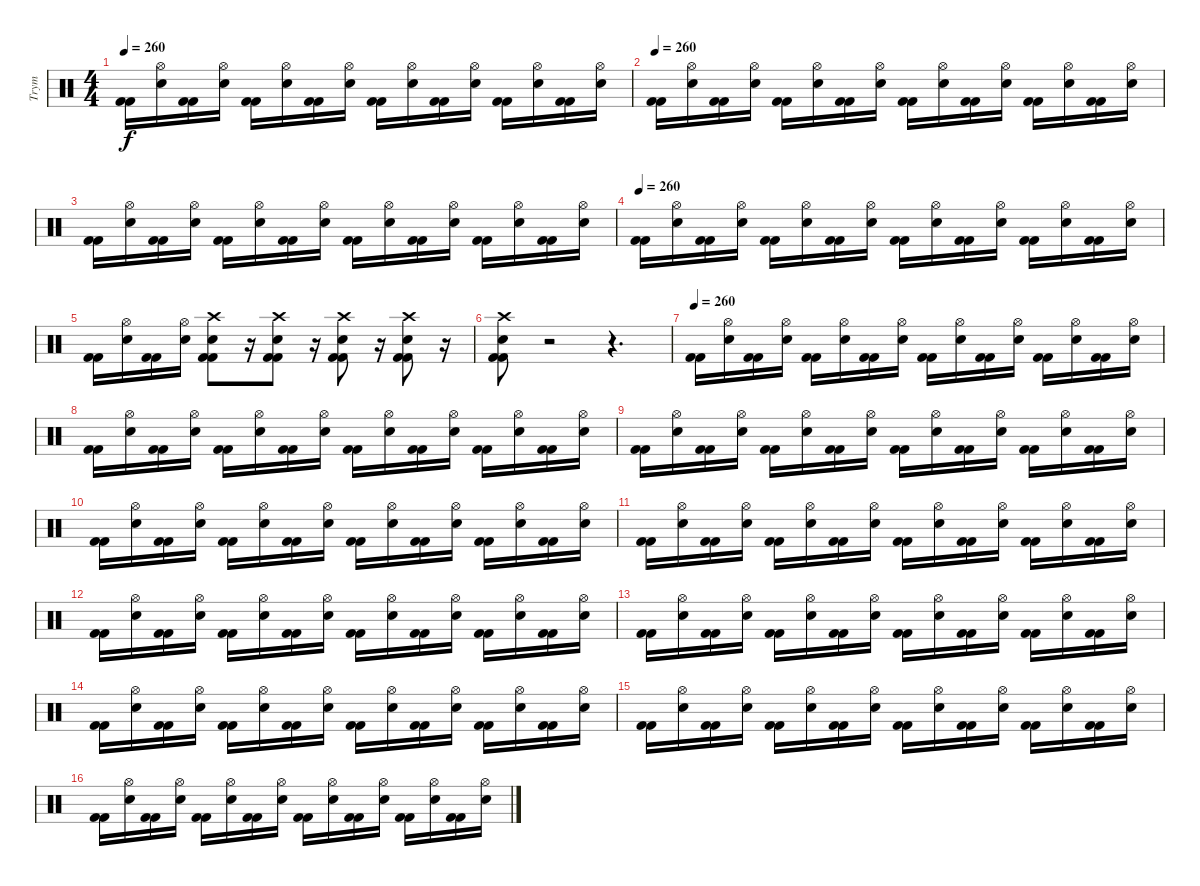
\track ("Trym" "Trym") {instrument percussion}
\staff {score}
\articulation defaults
\ts (4 4)
\tempo 260
\clef neutral
\ks c
("Kick (hit) 2" "Kick (hit) 2").16{dy f} ("Hi-Hat (open)" "Snare (hit) 2").16 ("Kick (hit) 2" "Kick (hit) 2").16 ("Hi-Hat (open)" "Snare (hit) 2").16 ("Kick (hit) 2" "Kick (hit) 2").16 ("Hi-Hat (open)" "Snare (hit) 2").16 ("Kick (hit) 2" "Kick (hit) 2").16 ("Hi-Hat (open)" "Snare (hit) 2").16 ("Kick (hit) 2" "Kick (hit) 2").16 ("Hi-Hat (open)" "Snare (hit) 2").16 ("Kick (hit) 2" "Kick (hit) 2").16 ("Hi-Hat (open)" "Snare (hit) 2").16 ("Kick (hit) 2" "Kick (hit) 2").16 ("Hi-Hat (open)" "Snare (hit) 2").16 ("Kick (hit) 2" "Kick (hit) 2").16 ("Hi-Hat (open)" "Snare (hit) 2").16 |
\tempo 260
("Kick (hit) 2" "Kick (hit) 2").16 ("Hi-Hat (open)" "Snare (hit) 2").16 ("Kick (hit) 2" "Kick (hit) 2").16 ("Hi-Hat (open)" "Snare (hit) 2").16 ("Kick (hit) 2" "Kick (hit) 2").16 ("Hi-Hat (open)" "Snare (hit) 2").16 ("Kick (hit) 2" "Kick (hit) 2").16 ("Hi-Hat (open)" "Snare (hit) 2").16 ("Kick (hit) 2" "Kick (hit) 2").16 ("Hi-Hat (open)" "Snare (hit) 2").16 ("Kick (hit) 2" "Kick (hit) 2").16 ("Hi-Hat (open)" "Snare (hit) 2").16 ("Kick (hit) 2" "Kick (hit) 2").16 ("Hi-Hat (open)" "Snare (hit) 2").16 ("Kick (hit) 2" "Kick (hit) 2").16 ("Hi-Hat (open)" "Snare (hit) 2").16 |
("Kick (hit) 2" "Kick (hit) 2").16 ("Hi-Hat (open)" "Snare (hit) 2").16 ("Kick (hit) 2" "Kick (hit) 2").16 ("Hi-Hat (open)" "Snare (hit) 2").16 ("Kick (hit) 2" "Kick (hit) 2").16 ("Hi-Hat (open)" "Snare (hit) 2").16 ("Kick (hit) 2" "Kick (hit) 2").16 ("Hi-Hat (open)" "Snare (hit) 2").16 ("Kick (hit) 2" "Kick (hit) 2").16 ("Hi-Hat (open)" "Snare (hit) 2").16 ("Kick (hit) 2" "Kick (hit) 2").16 ("Hi-Hat (open)" "Snare (hit) 2").16 ("Kick (hit) 2" "Kick (hit) 2").16 ("Hi-Hat (open)" "Snare (hit) 2").16 ("Kick (hit) 2" "Kick (hit) 2").16 ("Hi-Hat (open)" "Snare (hit) 2").16 |
\tempo 260
("Kick (hit) 2" "Kick (hit) 2").16 ("Hi-Hat (open)" "Snare (hit) 2").16 ("Kick (hit) 2" "Kick (hit) 2").16 ("Hi-Hat (open)" "Snare (hit) 2").16 ("Kick (hit) 2" "Kick (hit) 2").16 ("Hi-Hat (open)" "Snare (hit) 2").16 ("Kick (hit) 2" "Kick (hit) 2").16 ("Hi-Hat (open)" "Snare (hit) 2").16 ("Kick (hit) 2" "Kick (hit) 2").16 ("Hi-Hat (open)" "Snare (hit) 2").16 ("Kick (hit) 2" "Kick (hit) 2").16 ("Hi-Hat (open)" "Snare (hit) 2").16 ("Kick (hit) 2" "Kick (hit) 2").16 ("Hi-Hat (open)" "Snare (hit) 2").16 ("Kick (hit) 2" "Kick (hit) 2").16 ("Hi-Hat (open)" "Snare (hit) 2").16 |
("Kick (hit) 2" "Kick (hit) 2").16 ("Hi-Hat (open)" "Snare (hit) 2").16 ("Kick (hit) 2" "Kick (hit) 2").16 ("Hi-Hat (open)" "Snare (hit) 2").16 ("Kick (hit) 2" "Crash high (hit)" "Snare (hit) 2" "Kick (hit) 2").8 r.16 ("Kick (hit) 2" "Crash high (hit)" "Snare (hit) 2" "Kick (hit) 2").8 r.16 ("Kick (hit) 2" "Crash high (hit)" "Snare (hit) 2" "Kick (hit) 2").8 r.16 ("Kick (hit) 2" "Crash high (hit)" "Snare (hit) 2" "Kick (hit) 2").8 r.16 |
("Kick (hit) 2" "Crash high (hit)" "Snare (hit) 2" "Kick (hit) 2").8 r.2 r.4{d} |
\tempo 260
("Kick (hit) 2" "Kick (hit) 2").16 ("Hi-Hat (open)" "Snare (hit) 2").16 ("Kick (hit) 2" "Kick (hit) 2").16 ("Hi-Hat (open)" "Snare (hit) 2").16 ("Kick (hit) 2" "Kick (hit) 2").16 ("Hi-Hat (open)" "Snare (hit) 2").16 ("Kick (hit) 2" "Kick (hit) 2").16 ("Hi-Hat (open)" "Snare (hit) 2").16 ("Kick (hit) 2" "Kick (hit) 2").16 ("Hi-Hat (open)" "Snare (hit) 2").16 ("Kick (hit) 2" "Kick (hit) 2").16 ("Hi-Hat (open)" "Snare (hit) 2").16 ("Kick (hit) 2" "Kick (hit) 2").16 ("Hi-Hat (open)" "Snare (hit) 2").16 ("Kick (hit) 2" "Kick (hit) 2").16 ("Hi-Hat (open)" "Snare (hit) 2").16 |
("Kick (hit) 2" "Kick (hit) 2").16 ("Hi-Hat (open)" "Snare (hit) 2").16 ("Kick (hit) 2" "Kick (hit) 2").16 ("Hi-Hat (open)" "Snare (hit) 2").16 ("Kick (hit) 2" "Kick (hit) 2").16 ("Hi-Hat (open)" "Snare (hit) 2").16 ("Kick (hit) 2" "Kick (hit) 2").16 ("Hi-Hat (open)" "Snare (hit) 2").16 ("Kick (hit) 2" "Kick (hit) 2").16 ("Hi-Hat (open)" "Snare (hit) 2").16 ("Kick (hit) 2" "Kick (hit) 2").16 ("Hi-Hat (open)" "Snare (hit) 2").16 ("Kick (hit) 2" "Kick (hit) 2").16 ("Hi-Hat (open)" "Snare (hit) 2").16 ("Kick (hit) 2" "Kick (hit) 2").16 ("Hi-Hat (open)" "Snare (hit) 2").16 |
("Kick (hit) 2" "Kick (hit) 2").16 ("Hi-Hat (open)" "Snare (hit) 2").16 ("Kick (hit) 2" "Kick (hit) 2").16 ("Hi-Hat (open)" "Snare (hit) 2").16 ("Kick (hit) 2" "Kick (hit) 2").16 ("Hi-Hat (open)" "Snare (hit) 2").16 ("Kick (hit) 2" "Kick (hit) 2").16 ("Hi-Hat (open)" "Snare (hit) 2").16 ("Kick (hit) 2" "Kick (hit) 2").16 ("Hi-Hat (open)" "Snare (hit) 2").16 ("Kick (hit) 2" "Kick (hit) 2").16 ("Hi-Hat (open)" "Snare (hit) 2").16 ("Kick (hit) 2" "Kick (hit) 2").16 ("Hi-Hat (open)" "Snare (hit) 2").16 ("Kick (hit) 2" "Kick (hit) 2").16 ("Hi-Hat (open)" "Snare (hit) 2").16 |
("Kick (hit) 2" "Kick (hit) 2").16 ("Hi-Hat (open)" "Snare (hit) 2").16 ("Kick (hit) 2" "Kick (hit) 2").16 ("Hi-Hat (open)" "Snare (hit) 2").16 ("Kick (hit) 2" "Kick (hit) 2").16 ("Hi-Hat (open)" "Snare (hit) 2").16 ("Kick (hit) 2" "Kick (hit) 2").16 ("Hi-Hat (open)" "Snare (hit) 2").16 ("Kick (hit) 2" "Kick (hit) 2").16 ("Hi-Hat (open)" "Snare (hit) 2").16 ("Kick (hit) 2" "Kick (hit) 2").16 ("Hi-Hat (open)" "Snare (hit) 2").16 ("Kick (hit) 2" "Kick (hit) 2").16 ("Hi-Hat (open)" "Snare (hit) 2").16 ("Kick (hit) 2" "Kick (hit) 2").16 ("Hi-Hat (open)" "Snare (hit) 2").16 |
("Kick (hit) 2" "Kick (hit) 2").16 ("Hi-Hat (open)" "Snare (hit) 2").16 ("Kick (hit) 2" "Kick (hit) 2").16 ("Hi-Hat (open)" "Snare (hit) 2").16 ("Kick (hit) 2" "Kick (hit) 2").16 ("Hi-Hat (open)" "Snare (hit) 2").16 ("Kick (hit) 2" "Kick (hit) 2").16 ("Hi-Hat (open)" "Snare (hit) 2").16 ("Kick (hit) 2" "Kick (hit) 2").16 ("Hi-Hat (open)" "Snare (hit) 2").16 ("Kick (hit) 2" "Kick (hit) 2").16 ("Hi-Hat (open)" "Snare (hit) 2").16 ("Kick (hit) 2" "Kick (hit) 2").16 ("Hi-Hat (open)" "Snare (hit) 2").16 ("Kick (hit) 2" "Kick (hit) 2").16 ("Hi-Hat (open)" "Snare (hit) 2").16 |
("Kick (hit) 2" "Kick (hit) 2").16 ("Hi-Hat (open)" "Snare (hit) 2").16 ("Kick (hit) 2" "Kick (hit) 2").16 ("Hi-Hat (open)" "Snare (hit) 2").16 ("Kick (hit) 2" "Kick (hit) 2").16 ("Hi-Hat (open)" "Snare (hit) 2").16 ("Kick (hit) 2" "Kick (hit) 2").16 ("Hi-Hat (open)" "Snare (hit) 2").16 ("Kick (hit) 2" "Kick (hit) 2").16 ("Hi-Hat (open)" "Snare (hit) 2").16 ("Kick (hit) 2" "Kick (hit) 2").16 ("Hi-Hat (open)" "Snare (hit) 2").16 ("Kick (hit) 2" "Kick (hit) 2").16 ("Hi-Hat (open)" "Snare (hit) 2").16 ("Kick (hit) 2" "Kick (hit) 2").16 ("Hi-Hat (open)" "Snare (hit) 2").16 |
("Kick (hit) 2" "Kick (hit) 2").16 ("Hi-Hat (open)" "Snare (hit) 2").16 ("Kick (hit) 2" "Kick (hit) 2").16 ("Hi-Hat (open)" "Snare (hit) 2").16 ("Kick (hit) 2" "Kick (hit) 2").16 ("Hi-Hat (open)" "Snare (hit) 2").16 ("Kick (hit) 2" "Kick (hit) 2").16 ("Hi-Hat (open)" "Snare (hit) 2").16 ("Kick (hit) 2" "Kick (hit) 2").16 ("Hi-Hat (open)" "Snare (hit) 2").16 ("Kick (hit) 2" "Kick (hit) 2").16 ("Hi-Hat (open)" "Snare (hit) 2").16 ("Kick (hit) 2" "Kick (hit) 2").16 ("Hi-Hat (open)" "Snare (hit) 2").16 ("Kick (hit) 2" "Kick (hit) 2").16 ("Hi-Hat (open)" "Snare (hit) 2").16 |
("Kick (hit) 2" "Kick (hit) 2").16 ("Hi-Hat (open)" "Snare (hit) 2").16 ("Kick (hit) 2" "Kick (hit) 2").16 ("Hi-Hat (open)" "Snare (hit) 2").16 ("Kick (hit) 2" "Kick (hit) 2").16 ("Hi-Hat (open)" "Snare (hit) 2").16 ("Kick (hit) 2" "Kick (hit) 2").16 ("Hi-Hat (open)" "Snare (hit) 2").16 ("Kick (hit) 2" "Kick (hit) 2").16 ("Hi-Hat (open)" "Snare (hit) 2").16 ("Kick (hit) 2" "Kick (hit) 2").16 ("Hi-Hat (open)" "Snare (hit) 2").16 ("Kick (hit) 2" "Kick (hit) 2").16 ("Hi-Hat (open)" "Snare (hit) 2").16 ("Kick (hit) 2" "Kick (hit) 2").16 ("Hi-Hat (open)" "Snare (hit) 2").16 |
("Kick (hit) 2" "Kick (hit) 2").16 ("Hi-Hat (open)" "Snare (hit) 2").16 ("Kick (hit) 2" "Kick (hit) 2").16 ("Hi-Hat (open)" "Snare (hit) 2").16 ("Kick (hit) 2" "Kick (hit) 2").16 ("Hi-Hat (open)" "Snare (hit) 2").16 ("Kick (hit) 2" "Kick (hit) 2").16 ("Hi-Hat (open)" "Snare (hit) 2").16 ("Kick (hit) 2" "Kick (hit) 2").16 ("Hi-Hat (open)" "Snare (hit) 2").16 ("Kick (hit) 2" "Kick (hit) 2").16 ("Hi-Hat (open)" "Snare (hit) 2").16 ("Kick (hit) 2" "Kick (hit) 2").16 ("Hi-Hat (open)" "Snare (hit) 2").16 ("Kick (hit) 2" "Kick (hit) 2").16 ("Hi-Hat (open)" "Snare (hit) 2").16 |
("Kick (hit) 2" "Kick (hit) 2").16 ("Hi-Hat (open)" "Snare (hit) 2").16 ("Kick (hit) 2" "Kick (hit) 2").16 ("Hi-Hat (open)" "Snare (hit) 2").16 ("Kick (hit) 2" "Kick (hit) 2").16 ("Hi-Hat (open)" "Snare (hit) 2").16 ("Kick (hit) 2" "Kick (hit) 2").16 ("Hi-Hat (open)" "Snare (hit) 2").16 ("Kick (hit) 2" "Kick (hit) 2").16 ("Hi-Hat (open)" "Snare (hit) 2").16 ("Kick (hit) 2" "Kick (hit) 2").16 ("Hi-Hat (open)" "Snare (hit) 2").16 ("Kick (hit) 2" "Kick (hit) 2").16 ("Hi-Hat (open)" "Snare (hit) 2").16 ("Kick (hit) 2" "Kick (hit) 2").16 ("Hi-Hat (open)" "Snare (hit) 2").16
